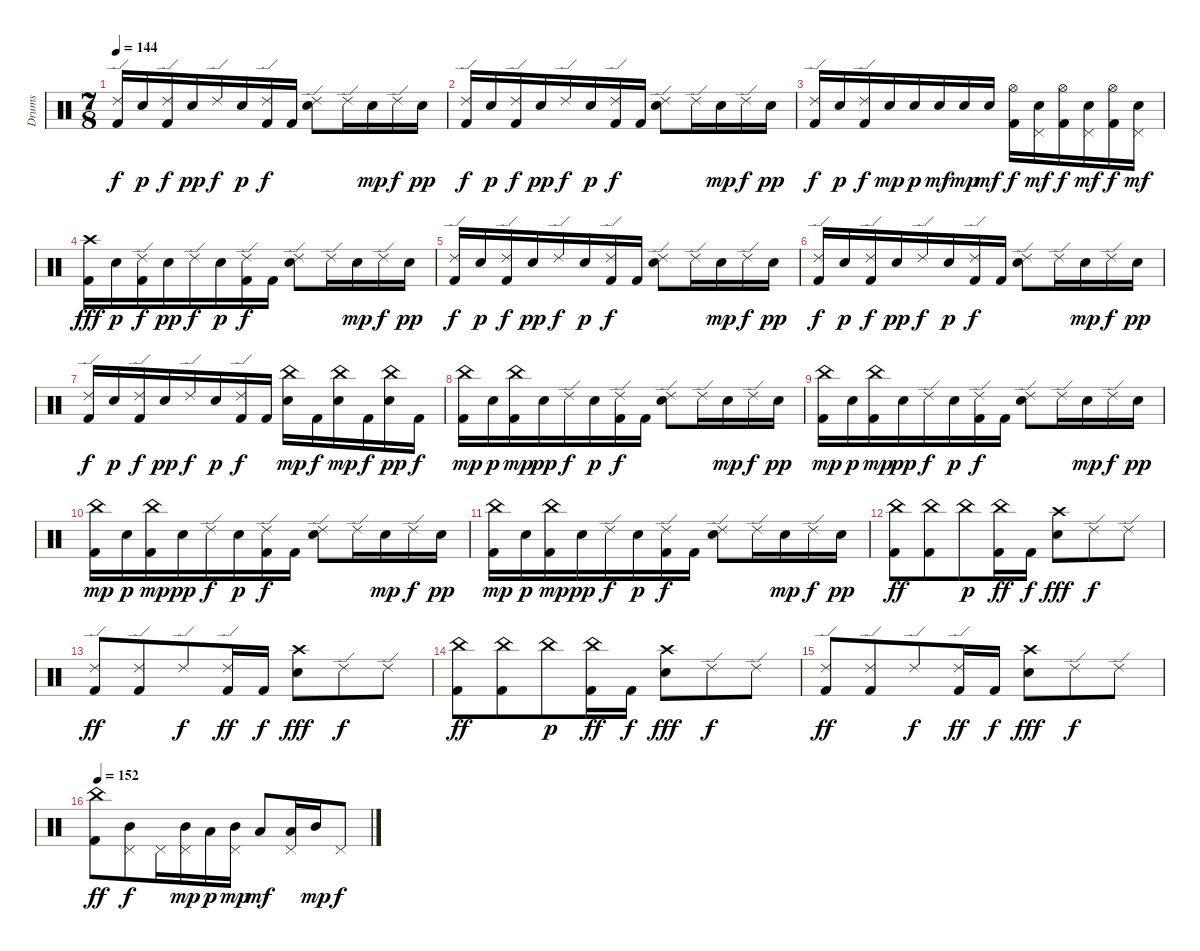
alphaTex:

\track ("Drums" "Drums") {instrument percussion}
\staff {score}
\articulation defaults
\ts (7 8)
\tempo 144
\clef neutral
\ks c
("Ride (edge) 2" "Kick (hit) 2").16{dy f} "Snare (hit) 2".16{dy p} ("Ride (edge) 2" "Kick (hit) 2").16{dy f} "Snare (hit) 2".16{dy pp} "Ride (edge) 2".16{dy f} "Snare (hit) 2".16{dy p} ("Ride (edge) 2" "Kick (hit) 2").16{dy f} "Kick (hit) 2".16 ("Ride (edge) 2" "Snare (hit) 2").8 "Ride (edge) 2".16 "Snare (hit) 2".16{dy mp} "Ride (edge) 2".16{dy f} "Snare (hit) 2".16{dy pp} |
("Ride (edge) 2" "Kick (hit) 2").16{dy f} "Snare (hit) 2".16{dy p} ("Ride (edge) 2" "Kick (hit) 2").16{dy f} "Snare (hit) 2".16{dy pp} "Ride (edge) 2".16{dy f} "Snare (hit) 2".16{dy p} ("Ride (edge) 2" "Kick (hit) 2").16{dy f} "Kick (hit) 2".16 ("Ride (edge) 2" "Snare (hit) 2").8 "Ride (edge) 2".16 "Snare (hit) 2".16{dy mp} "Ride (edge) 2".16{dy f} "Snare (hit) 2".16{dy pp} |
("Ride (edge) 2" "Kick (hit) 2").16{dy f} "Snare (hit) 2".16{dy p} ("Ride (edge) 2" "Kick (hit) 2").16{dy f} "Snare (hit) 2".16{dy mp} "Snare (hit) 2".16{dy p} "Snare (hit) 2".16{dy mf} "Snare (hit) 2".16{dy mp} "Snare (hit) 2".16{dy mf} ("Hi-Hat (open)" "Kick (hit) 2").16{dy f} ("Pedal Hi-Hat (hit)" "Snare (hit) 2").16{dy mf} ("Hi-Hat (open)" "Kick (hit) 2").16{dy f} ("Pedal Hi-Hat (hit)" "Snare (hit) 2").16{dy mf} ("Hi-Hat (open)" "Kick (hit) 2").16{dy f} ("Pedal Hi-Hat (hit)" "Snare (hit) 2").16{dy mf} |
("Crash high (hit)" "Kick (hit) 2").16{dy fff} "Snare (hit) 2".16{dy p} ("Ride (edge) 2" "Kick (hit) 2").16{dy f} "Snare (hit) 2".16{dy pp} "Ride (edge) 2".16{dy f} "Snare (hit) 2".16{dy p} ("Ride (edge) 2" "Kick (hit) 2").16{dy f} "Kick (hit) 2".16 ("Ride (edge) 2" "Snare (hit) 2").8 "Ride (edge) 2".16 "Snare (hit) 2".16{dy mp} "Ride (edge) 2".16{dy f} "Snare (hit) 2".16{dy pp} |
("Ride (edge) 2" "Kick (hit) 2").16{dy f} "Snare (hit) 2".16{dy p} ("Ride (edge) 2" "Kick (hit) 2").16{dy f} "Snare (hit) 2".16{dy pp} "Ride (edge) 2".16{dy f} "Snare (hit) 2".16{dy p} ("Ride (edge) 2" "Kick (hit) 2").16{dy f} "Kick (hit) 2".16 ("Ride (edge) 2" "Snare (hit) 2").8 "Ride (edge) 2".16 "Snare (hit) 2".16{dy mp} "Ride (edge) 2".16{dy f} "Snare (hit) 2".16{dy pp} |
("Ride (edge) 2" "Kick (hit) 2").16{dy f} "Snare (hit) 2".16{dy p} ("Ride (edge) 2" "Kick (hit) 2").16{dy f} "Snare (hit) 2".16{dy pp} "Ride (edge) 2".16{dy f} "Snare (hit) 2".16{dy p} ("Ride (edge) 2" "Kick (hit) 2").16{dy f} "Kick (hit) 2".16 ("Ride (edge) 2" "Snare (hit) 2").8 "Ride (edge) 2".16 "Snare (hit) 2".16{dy mp} "Ride (edge) 2".16{dy f} "Snare (hit) 2".16{dy pp} |
("Ride (edge) 2" "Kick (hit) 2").16{dy f} "Snare (hit) 2".16{dy p} ("Ride (edge) 2" "Kick (hit) 2").16{dy f} "Snare (hit) 2".16{dy pp} "Ride (edge) 2".16{dy f} "Snare (hit) 2".16{dy p} ("Ride (edge) 2" "Kick (hit) 2").16{dy f} "Kick (hit) 2".16 ("China (hit)" "Snare (hit) 2").16{dy mp} "Kick (hit) 2".16{dy f} ("China (hit)" "Snare (hit) 2").16{dy mp} "Kick (hit) 2".16{dy f} ("China (hit)" "Snare (hit) 2").16{dy pp} "Kick (hit) 2".16{dy f} |
("China (hit)" "Kick (hit) 2").16{dy mp} "Snare (hit) 2".16{dy p} ("China (hit)" "Kick (hit) 2").16{dy mp} "Snare (hit) 2".16{dy pp} "Ride (edge) 2".16{dy f} "Snare (hit) 2".16{dy p} ("Ride (edge) 2" "Kick (hit) 2").16{dy f} "Kick (hit) 2".16 ("Ride (edge) 2" "Snare (hit) 2").8 "Ride (edge) 2".16 "Snare (hit) 2".16{dy mp} "Ride (edge) 2".16{dy f} "Snare (hit) 2".16{dy pp} |
("China (hit)" "Kick (hit) 2").16{dy mp} "Snare (hit) 2".16{dy p} ("China (hit)" "Kick (hit) 2").16{dy mp} "Snare (hit) 2".16{dy pp} "Ride (edge) 2".16{dy f} "Snare (hit) 2".16{dy p} ("Ride (edge) 2" "Kick (hit) 2").16{dy f} "Kick (hit) 2".16 ("Ride (edge) 2" "Snare (hit) 2").8 "Ride (edge) 2".16 "Snare (hit) 2".16{dy mp} "Ride (edge) 2".16{dy f} "Snare (hit) 2".16{dy pp} |
("China (hit)" "Kick (hit) 2").16{dy mp} "Snare (hit) 2".16{dy p} ("China (hit)" "Kick (hit) 2").16{dy mp} "Snare (hit) 2".16{dy pp} "Ride (edge) 2".16{dy f} "Snare (hit) 2".16{dy p} ("Ride (edge) 2" "Kick (hit) 2").16{dy f} "Kick (hit) 2".16 ("Ride (edge) 2" "Snare (hit) 2").8 "Ride (edge) 2".16 "Snare (hit) 2".16{dy mp} "Ride (edge) 2".16{dy f} "Snare (hit) 2".16{dy pp} |
("China (hit)" "Kick (hit) 2").16{dy mp} "Snare (hit) 2".16{dy p} ("China (hit)" "Kick (hit) 2").16{dy mp} "Snare (hit) 2".16{dy pp} "Ride (edge) 2".16{dy f} "Snare (hit) 2".16{dy p} ("Ride (edge) 2" "Kick (hit) 2").16{dy f} "Kick (hit) 2".16 ("Ride (edge) 2" "Snare (hit) 2").8 "Ride (edge) 2".16 "Snare (hit) 2".16{dy mp} "Ride (edge) 2".16{dy f} "Snare (hit) 2".16{dy pp} |
("China (hit)" "Kick (hit) 2").8{dy ff} ("China (hit)" "Kick (hit) 2").8 "China (hit)".8{dy p} ("China (hit)" "Kick (hit) 2").16{dy ff} "Kick (hit) 2".16{dy f} ("Crash high (hit)" "Snare (hit) 2").8{dy fff} "Ride (edge) 2".8{dy f} "Ride (edge) 2".8 |
("Ride (edge) 2" "Kick (hit) 2").8{dy ff} ("Ride (edge) 2" "Kick (hit) 2").8 "Ride (edge) 2".8{dy f} ("Ride (edge) 2" "Kick (hit) 2").16{dy ff} "Kick (hit) 2".16{dy f} ("Crash high (hit)" "Snare (hit) 2").8{dy fff} "Ride (edge) 2".8{dy f} "Ride (edge) 2".8 |
("China (hit)" "Kick (hit) 2").8{dy ff} ("China (hit)" "Kick (hit) 2").8 "China (hit)".8{dy p} ("China (hit)" "Kick (hit) 2").16{dy ff} "Kick (hit) 2".16{dy f} ("Crash high (hit)" "Snare (hit) 2").8{dy fff} "Ride (edge) 2".8{dy f} "Ride (edge) 2".8 |
("Ride (edge) 2" "Kick (hit) 2").8{dy ff} ("Ride (edge) 2" "Kick (hit) 2").8 "Ride (edge) 2".8{dy f} ("Ride (edge) 2" "Kick (hit) 2").16{dy ff} "Kick (hit) 2".16{dy f} ("Crash high (hit)" "Snare (hit) 2").8{dy fff} "Ride (edge) 2".8{dy f} "Ride (edge) 2".8 |
\tempo 152
("China (hit)" "Kick (hit) 2").8{dy ff} ("Pedal Hi-Hat (hit)" "Mid Tom (hit)").8{dy f} "Pedal Hi-Hat (hit)".16 ("Pedal Hi-Hat (hit)" "Mid Tom (hit)").16{dy mp} "Low Tom (hit)".16{dy p} ("Pedal Hi-Hat (hit)" "Mid Tom (hit)").16{dy mp} "Low Tom (hit)".8{dy mf} ("Pedal Hi-Hat (hit)" "Low Tom (hit)").16 "Mid Tom (hit)".16{dy mp} "Pedal Hi-Hat (hit)".8{dy f}
